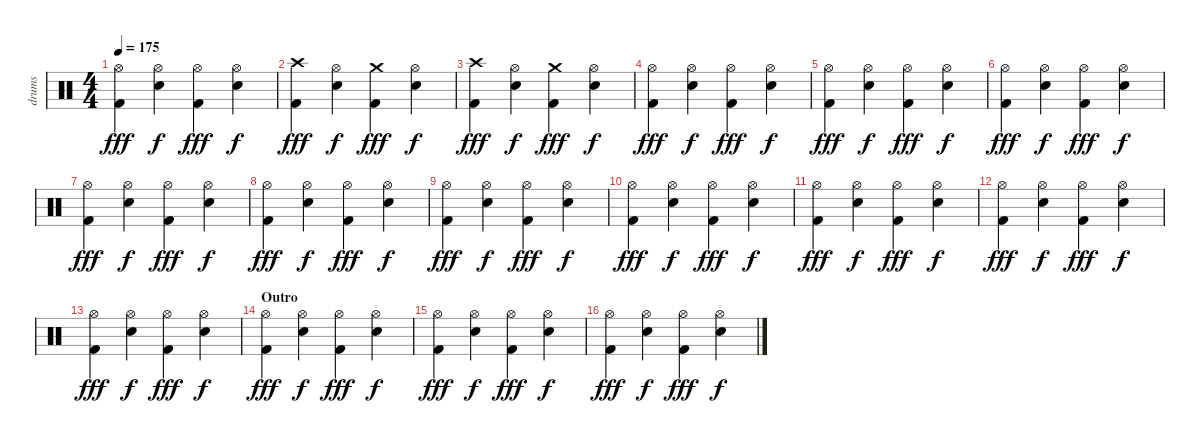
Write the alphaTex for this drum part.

\track ("drums" "drums") {instrument percussion}
\staff {score}
\articulation defaults
\ts (4 4)
\tempo 175
\clef neutral
\ks c
("Hi-Hat (open)" "Kick (hit) 2").4{dy fff} ("Hi-Hat (open)" "Snare (hit) 2").4{dy f} ("Hi-Hat (open)" "Kick (hit) 2").4{dy fff} ("Hi-Hat (open)" "Snare (hit) 2").4{dy f} |
("Crash high (hit)" "Kick (hit) 2").4{dy fff} ("Hi-Hat (open)" "Snare (hit) 2").4{dy f} ("Crash medium (hit)" "Kick (hit) 2").4{dy fff} ("Hi-Hat (open)" "Snare (hit) 2").4{dy f} |
("Crash high (hit)" "Kick (hit) 2").4{dy fff} ("Hi-Hat (open)" "Snare (hit) 2").4{dy f} ("Crash medium (hit)" "Kick (hit) 2").4{dy fff} ("Hi-Hat (open)" "Snare (hit) 2").4{dy f} |
("Hi-Hat (open)" "Kick (hit) 2").4{dy fff} ("Hi-Hat (open)" "Snare (hit) 2").4{dy f} ("Hi-Hat (open)" "Kick (hit) 2").4{dy fff} ("Hi-Hat (open)" "Snare (hit) 2").4{dy f} |
("Hi-Hat (open)" "Kick (hit) 2").4{dy fff} ("Hi-Hat (open)" "Snare (hit) 2").4{dy f} ("Hi-Hat (open)" "Kick (hit) 2").4{dy fff} ("Hi-Hat (open)" "Snare (hit) 2").4{dy f} |
("Hi-Hat (open)" "Kick (hit) 2").4{dy fff} ("Hi-Hat (open)" "Snare (hit) 2").4{dy f} ("Hi-Hat (open)" "Kick (hit) 2").4{dy fff} ("Hi-Hat (open)" "Snare (hit) 2").4{dy f} |
("Hi-Hat (open)" "Kick (hit) 2").4{dy fff} ("Hi-Hat (open)" "Snare (hit) 2").4{dy f} ("Hi-Hat (open)" "Kick (hit) 2").4{dy fff} ("Hi-Hat (open)" "Snare (hit) 2").4{dy f} |
("Hi-Hat (open)" "Kick (hit) 2").4{dy fff} ("Hi-Hat (open)" "Snare (hit) 2").4{dy f} ("Hi-Hat (open)" "Kick (hit) 2").4{dy fff} ("Hi-Hat (open)" "Snare (hit) 2").4{dy f} |
("Hi-Hat (open)" "Kick (hit) 2").4{dy fff} ("Hi-Hat (open)" "Snare (hit) 2").4{dy f} ("Hi-Hat (open)" "Kick (hit) 2").4{dy fff} ("Hi-Hat (open)" "Snare (hit) 2").4{dy f} |
("Hi-Hat (open)" "Kick (hit) 2").4{dy fff} ("Hi-Hat (open)" "Snare (hit) 2").4{dy f} ("Hi-Hat (open)" "Kick (hit) 2").4{dy fff} ("Hi-Hat (open)" "Snare (hit) 2").4{dy f} |
("Hi-Hat (open)" "Kick (hit) 2").4{dy fff} ("Hi-Hat (open)" "Snare (hit) 2").4{dy f} ("Hi-Hat (open)" "Kick (hit) 2").4{dy fff} ("Hi-Hat (open)" "Snare (hit) 2").4{dy f} |
("Hi-Hat (open)" "Kick (hit) 2").4{dy fff} ("Hi-Hat (open)" "Snare (hit) 2").4{dy f} ("Hi-Hat (open)" "Kick (hit) 2").4{dy fff} ("Hi-Hat (open)" "Snare (hit) 2").4{dy f} |
("Hi-Hat (open)" "Kick (hit) 2").4{dy fff} ("Hi-Hat (open)" "Snare (hit) 2").4{dy f} ("Hi-Hat (open)" "Kick (hit) 2").4{dy fff} ("Hi-Hat (open)" "Snare (hit) 2").4{dy f} |
\section ("" "Outro")
("Hi-Hat (open)" "Kick (hit) 2").4{dy fff} ("Hi-Hat (open)" "Snare (hit) 2").4{dy f} ("Hi-Hat (open)" "Kick (hit) 2").4{dy fff} ("Hi-Hat (open)" "Snare (hit) 2").4{dy f} |
("Hi-Hat (open)" "Kick (hit) 2").4{dy fff} ("Hi-Hat (open)" "Snare (hit) 2").4{dy f} ("Hi-Hat (open)" "Kick (hit) 2").4{dy fff} ("Hi-Hat (open)" "Snare (hit) 2").4{dy f} |
("Hi-Hat (open)" "Kick (hit) 2").4{dy fff} ("Hi-Hat (open)" "Snare (hit) 2").4{dy f} ("Hi-Hat (open)" "Kick (hit) 2").4{dy fff} ("Hi-Hat (open)" "Snare (hit) 2").4{dy f}
